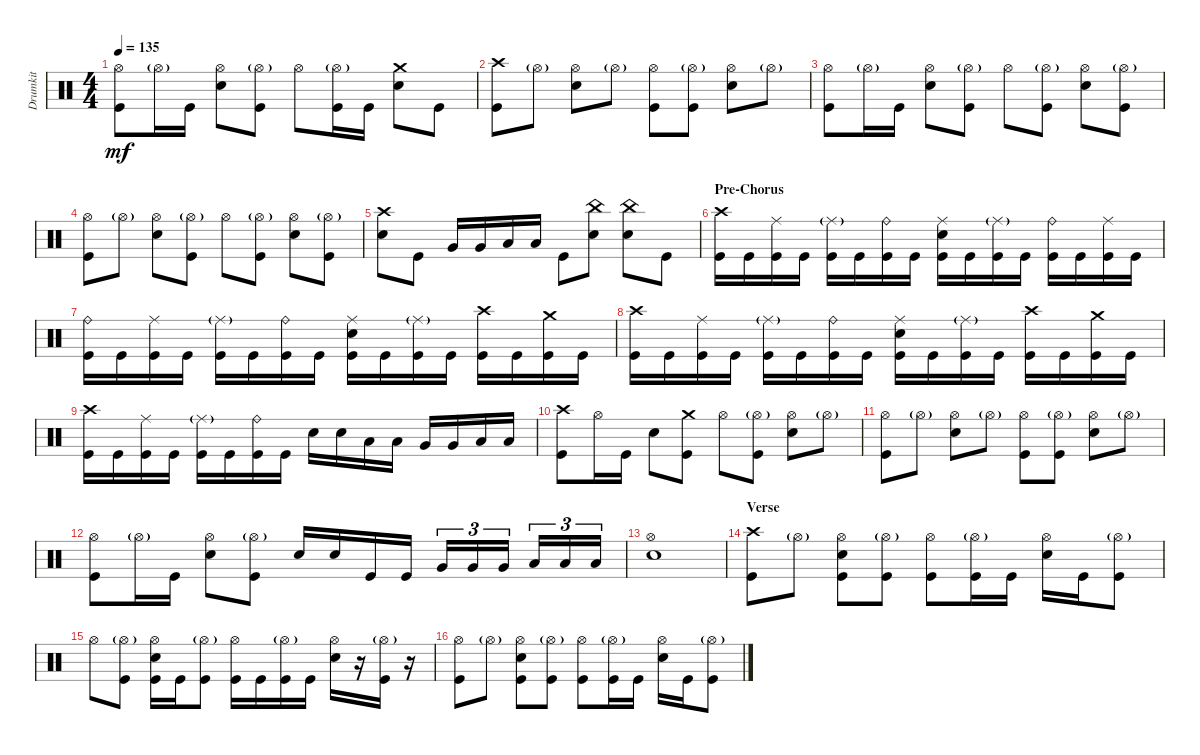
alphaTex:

\track ("Drumkit" "Drumkit") {instrument percussion}
\staff {score}
\articulation defaults
\ts (4 4)
\tempo 135
\clef neutral
\ks c
("Kick (hit)" "Hi-Hat (open)").8{dy mf} "Hi-Hat (open)"{g}.16 "Kick (hit)".16 ("Snare (hit) 2" "Hi-Hat (open)").8 ("Hi-Hat (open)"{g} "Kick (hit)").8 "Hi-Hat (open)".8 ("Kick (hit)" "Hi-Hat (open)"{g}).16 "Kick (hit)".16 ("Snare (hit) 2" "Crash medium (hit)").8 "Kick (hit)".8 |
("Kick (hit)" "Crash high (hit)").8 "Hi-Hat (open)"{g}.8 ("Snare (hit) 2" "Hi-Hat (open)").8 "Hi-Hat (open)"{g}.8 ("Hi-Hat (open)" "Kick (hit)").8 ("Kick (hit)" "Hi-Hat (open)"{g}).8 ("Snare (hit) 2" "Hi-Hat (open)").8 "Hi-Hat (open)"{g}.8 |
("Kick (hit)" "Hi-Hat (open)").8 "Hi-Hat (open)"{g}.16 "Kick (hit)".16 ("Snare (hit) 2" "Hi-Hat (open)").8 ("Hi-Hat (open)"{g} "Kick (hit)").8 "Hi-Hat (open)".8 ("Kick (hit)" "Hi-Hat (open)"{g}).8 ("Snare (hit) 2" "Hi-Hat (open)").8 ("Hi-Hat (open)"{g} "Kick (hit)").8 |
("Kick (hit)" "Hi-Hat (open)").8 "Hi-Hat (open)"{g}.8 ("Snare (hit) 2" "Hi-Hat (open)").8 ("Hi-Hat (open)"{g} "Kick (hit)").8 "Hi-Hat (open)".8 ("Kick (hit)" "Hi-Hat (open)"{g}).8 ("Snare (hit) 2" "Hi-Hat (open)").8 ("Hi-Hat (open)"{g} "Kick (hit)").8 |
("Snare (hit) 2" "Crash high (hit)").8 "Kick (hit)".8 "Very Low Tom (hit)".16 "Very Low Tom (hit)".16 "Low Floor Tom (hit)".16 "Low Floor Tom (hit)".16 "Kick (hit)".8 ("Snare (hit) 2" "China (hit)").8 ("Snare (hit) 2" "China (hit)").8 "Kick (hit)".8 |
\section ("" "Pre-Chorus")
("Kick (hit)" "Crash high (hit)").16 "Kick (hit)".16 ("Kick (hit)" "Ride (middle)").16 "Kick (hit)".16 ("Kick (hit)" "Ride (middle)"{g}).16 "Kick (hit)".16 ("Kick (hit)" "Ride (bell)").16 "Kick (hit)".16 ("Kick (hit)" "Snare (hit) 2" "Ride (middle)").16 "Kick (hit)".16 ("Kick (hit)" "Ride (middle)"{g}).16 "Kick (hit)".16 ("Kick (hit)" "Ride (bell)").16 "Kick (hit)".16 ("Kick (hit)" "Ride (middle)").16 "Kick (hit)".16 |
("Kick (hit)" "Ride (bell)").16 "Kick (hit)".16 ("Kick (hit)" "Ride (middle)").16 "Kick (hit)".16 ("Kick (hit)" "Ride (middle)"{g}).16 "Kick (hit)".16 ("Kick (hit)" "Ride (bell)").16 "Kick (hit)".16 ("Kick (hit)" "Snare (hit) 2" "Ride (middle)").16 "Kick (hit)".16 ("Kick (hit)" "Ride (middle)"{g}).16 "Kick (hit)".16 ("Kick (hit)" "Crash high (hit)").16 "Kick (hit)".16 ("Kick (hit)" "Crash medium (hit)").16 "Kick (hit)".16 |
("Kick (hit)" "Crash high (hit)").16 "Kick (hit)".16 ("Kick (hit)" "Ride (middle)").16 "Kick (hit)".16 ("Kick (hit)" "Ride (middle)"{g}).16 "Kick (hit)".16 ("Kick (hit)" "Ride (bell)").16 "Kick (hit)".16 ("Kick (hit)" "Snare (hit) 2" "Ride (middle)").16 "Kick (hit)".16 ("Kick (hit)" "Ride (middle)"{g}).16 "Kick (hit)".16 ("Kick (hit)" "Crash high (hit)").16 "Kick (hit)".16 ("Kick (hit)" "Crash medium (hit)").16 "Kick (hit)".16 |
("Kick (hit)" "Crash high (hit)").16 "Kick (hit)".16 ("Kick (hit)" "Ride (middle)").16 "Kick (hit)".16 ("Kick (hit)" "Ride (middle)"{g}).16 "Kick (hit)".16 ("Kick (hit)" "Ride (bell)").16 "Kick (hit)".16 "Snare (hit) 2".16 "Snare (hit) 2".16 "Low Tom (hit)".16 "Low Tom (hit)".16 "Very Low Tom (hit)".16 "Very Low Tom (hit)".16 "Low Floor Tom (hit)".16 "Low Floor Tom (hit)".16 |
("Kick (hit)" "Crash high (hit)").8 "Hi-Hat (open)".16 "Kick (hit)".16 "Snare (hit) 2".8 ("Kick (hit)" "Crash medium (hit)").8 "Hi-Hat (open)".8 ("Kick (hit)" "Hi-Hat (open)"{g}).8 ("Snare (hit) 2" "Hi-Hat (open)").8 "Hi-Hat (open)"{g}.8 |
("Kick (hit)" "Hi-Hat (open)").8 "Hi-Hat (open)"{g}.8 ("Snare (hit) 2" "Hi-Hat (open)").8 "Hi-Hat (open)"{g}.8 ("Hi-Hat (open)" "Kick (hit)").8 ("Kick (hit)" "Hi-Hat (open)"{g}).8 ("Snare (hit) 2" "Hi-Hat (open)").8 "Hi-Hat (open)"{g}.8 |
("Kick (hit)" "Hi-Hat (open)").8 "Hi-Hat (open)"{g}.16 "Kick (hit)".16 ("Snare (hit) 2" "Hi-Hat (open)").8 ("Hi-Hat (open)"{g} "Kick (hit)").8 "Snare (hit) 2".16 "Snare (hit) 2".16 "Kick (hit)".16 "Kick (hit)".16 "Very Low Tom (hit)".16{tu (3 2)} "Very Low Tom (hit)".16{tu (3 2)} "Very Low Tom (hit)".16{tu (3 2)} "Low Floor Tom (hit)".16{tu (3 2)} "Low Floor Tom (hit)".16{tu (3 2)} "Low Floor Tom (hit)".16{tu (3 2)} |
("Snare (hit) 2" "Hi-Hat (open)").1 |
\section ("" "Verse")
("Crash high (hit)" "Kick (hit)").8 "Hi-Hat (open)"{g}.8 ("Hi-Hat (open)" "Kick (hit)" "Snare (hit) 2").8 ("Hi-Hat (open)"{g} "Kick (hit)").8 ("Hi-Hat (open)" "Kick (hit)").8 ("Hi-Hat (open)"{g} "Kick (hit)").16 "Kick (hit)".16 ("Hi-Hat (open)" "Snare (hit) 2").16 "Kick (hit)".16 ("Hi-Hat (open)"{g} "Kick (hit)").8 |
"Hi-Hat (open)".8 ("Hi-Hat (open)"{g} "Kick (hit)").8 ("Hi-Hat (open)" "Kick (hit)" "Snare (hit) 2").16 "Kick (hit)".16 ("Hi-Hat (open)"{g} "Kick (hit)").8 ("Hi-Hat (open)" "Kick (hit)").16 "Kick (hit)".16 ("Hi-Hat (open)"{g} "Kick (hit)").16 "Kick (hit)".16 ("Hi-Hat (open)" "Snare (hit) 2").16 r.16 ("Hi-Hat (open)"{g} "Kick (hit)").16 r.16 |
("Kick (hit)" "Hi-Hat (open)").8 "Hi-Hat (open)"{g}.8 ("Hi-Hat (open)" "Kick (hit)" "Snare (hit) 2").8 ("Hi-Hat (open)"{g} "Kick (hit)").8 ("Hi-Hat (open)" "Kick (hit)").8 ("Hi-Hat (open)"{g} "Kick (hit)").16 "Kick (hit)".16 ("Hi-Hat (open)" "Snare (hit) 2").16 "Kick (hit)".16 ("Hi-Hat (open)"{g} "Kick (hit)").8
